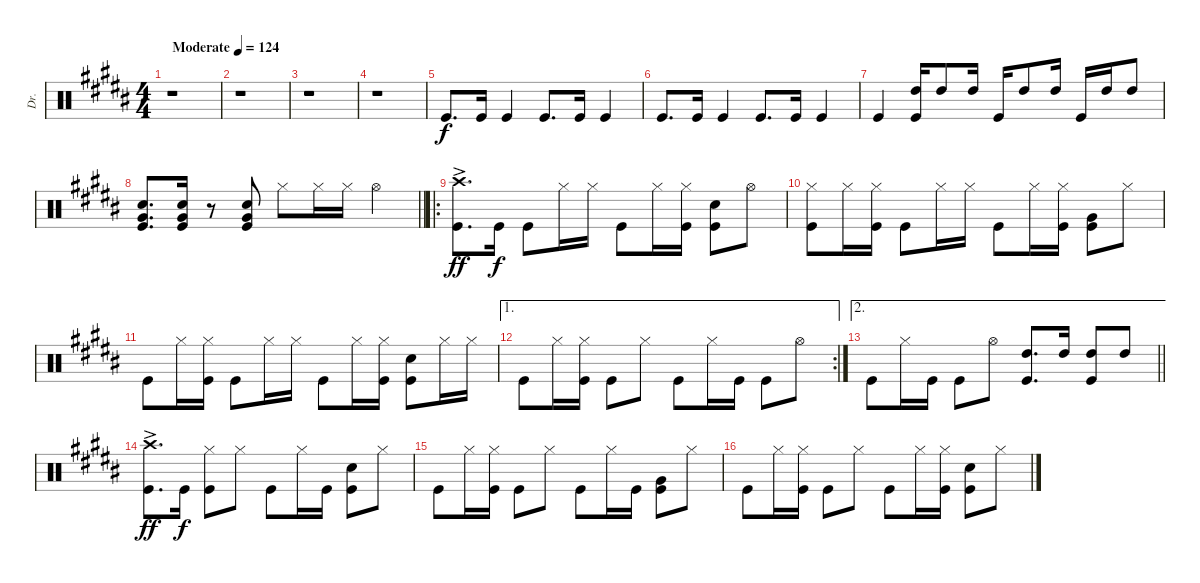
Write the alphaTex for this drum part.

\track ("Dr." "Dr.") {instrument percussion}
\staff {score}
\articulation defaults
\ts (4 4)
\tempo (124 "Moderate")
\clef neutral
\ks b
r.1{dy f} |
r.1 |
r.1 |
r.1 |
"Kick (hit)".8{d} "Kick (hit)".16 "Kick (hit)".4 "Kick (hit)".8{d} "Kick (hit)".16 "Kick (hit)".4 |
"Kick (hit)".8{d} "Kick (hit)".16 "Kick (hit)".4 "Kick (hit)".8{d} "Kick (hit)".16 "Kick (hit)".4 |
"Kick (hit)".4 ("Kick (hit)" "High Tom (hit)").16 "High Tom (hit)".8 "High Tom (hit)".16 "Kick (hit)".16 "High Tom (hit)".8 "High Tom (hit)".16 "Kick (hit)".16 "High Tom (hit)".16 "High Tom (hit)".8 |
\barLineRight lightlight
("Kick (hit)" "Snare (hit) 2" "Very Low Tom (hit)").8{d} ("Kick (hit)" "Snare (hit) 2" "Very Low Tom (hit)").16 r.8 ("Kick (hit)" "Very Low Tom (hit)" "Snare (hit) 2").8 "Hi-Hat (closed)".8 "Hi-Hat (closed)".16 "Hi-Hat (closed)".16 "Hi-Hat (open)".4 |
\ro
("Crash high (hit)"{ac} "Kick (hit)"{ac}).8{d dy ff} "Kick (hit)".16{dy f} "Kick (hit)".8 "Hi-Hat (closed)".16 "Hi-Hat (closed)".16 "Kick (hit)".8 "Hi-Hat (closed)".16 ("Hi-Hat (closed)" "Kick (hit)").16 ("Kick (hit)" "Snare (hit) 2").8 "Hi-Hat (open)".8 |
("Hi-Hat (closed)" "Kick (hit)").8 "Hi-Hat (closed)".16 ("Hi-Hat (closed)" "Kick (hit)").16 "Kick (hit)".8 "Hi-Hat (closed)".16 "Hi-Hat (closed)".16 "Kick (hit)".8 "Hi-Hat (closed)".16 ("Hi-Hat (closed)" "Kick (hit)").16 ("Kick (hit)" "Very Low Tom (hit)").8 "Hi-Hat (closed)".8 |
"Kick (hit)".8 "Hi-Hat (closed)".16 ("Hi-Hat (closed)" "Kick (hit)").16 "Kick (hit)".8 "Hi-Hat (closed)".16 "Hi-Hat (closed)".16 "Kick (hit)".8 "Hi-Hat (closed)".16 ("Hi-Hat (closed)" "Kick (hit)").16 ("Kick (hit)" "Snare (hit) 2").8 "Hi-Hat (closed)".16 "Hi-Hat (closed)".16 |
\ae 1
\rc 2 "Kick (hit)".8 "Hi-Hat (closed)".16
("Hi-Hat (closed)" "Kick (hit)").16 "Kick (hit)".8 "Hi-Hat (closed)".8 "Kick (hit)".8 "Hi-Hat (closed)".16 "Kick (hit)".16 "Kick (hit)".8 "Hi-Hat (open)".8 |
\ae 2
\barLineRight lightlight "Kick (hit)".8 "Hi-Hat (closed)".16 "Kick (hit)".16 "Kick (hit)".8 "Hi-Hat (open)".8
("Kick (hit)" "High Tom (hit)").8{d} "High Tom (hit)".16 ("High Tom (hit)" "Kick (hit)").8 "High Tom (hit)".8 |
("Crash high (hit)"{ac} "Kick (hit)"{ac}).8{d dy ff} "Kick (hit)".16{dy f} ("Kick (hit)" "Hi-Hat (closed)").8 "Hi-Hat (closed)".8 "Kick (hit)".8 "Hi-Hat (closed)".16 "Kick (hit)".16 ("Kick (hit)" "Snare (hit) 2").8 "Hi-Hat (closed)".8 |
"Kick (hit)".8 "Hi-Hat (closed)".16 ("Hi-Hat (closed)" "Kick (hit)").16 "Kick (hit)".8 "Hi-Hat (closed)".8 "Kick (hit)".8 "Hi-Hat (closed)".16 "Kick (hit)".16 ("Kick (hit)" "Very Low Tom (hit)").8 "Hi-Hat (closed)".8 |
"Kick (hit)".8 "Hi-Hat (closed)".16 ("Hi-Hat (closed)" "Kick (hit)").16 "Kick (hit)".8 "Hi-Hat (closed)".8 "Kick (hit)".8 "Hi-Hat (closed)".16 ("Kick (hit)" "Hi-Hat (closed)").16 ("Kick (hit)" "Snare (hit) 2").8 "Hi-Hat (closed)".8
